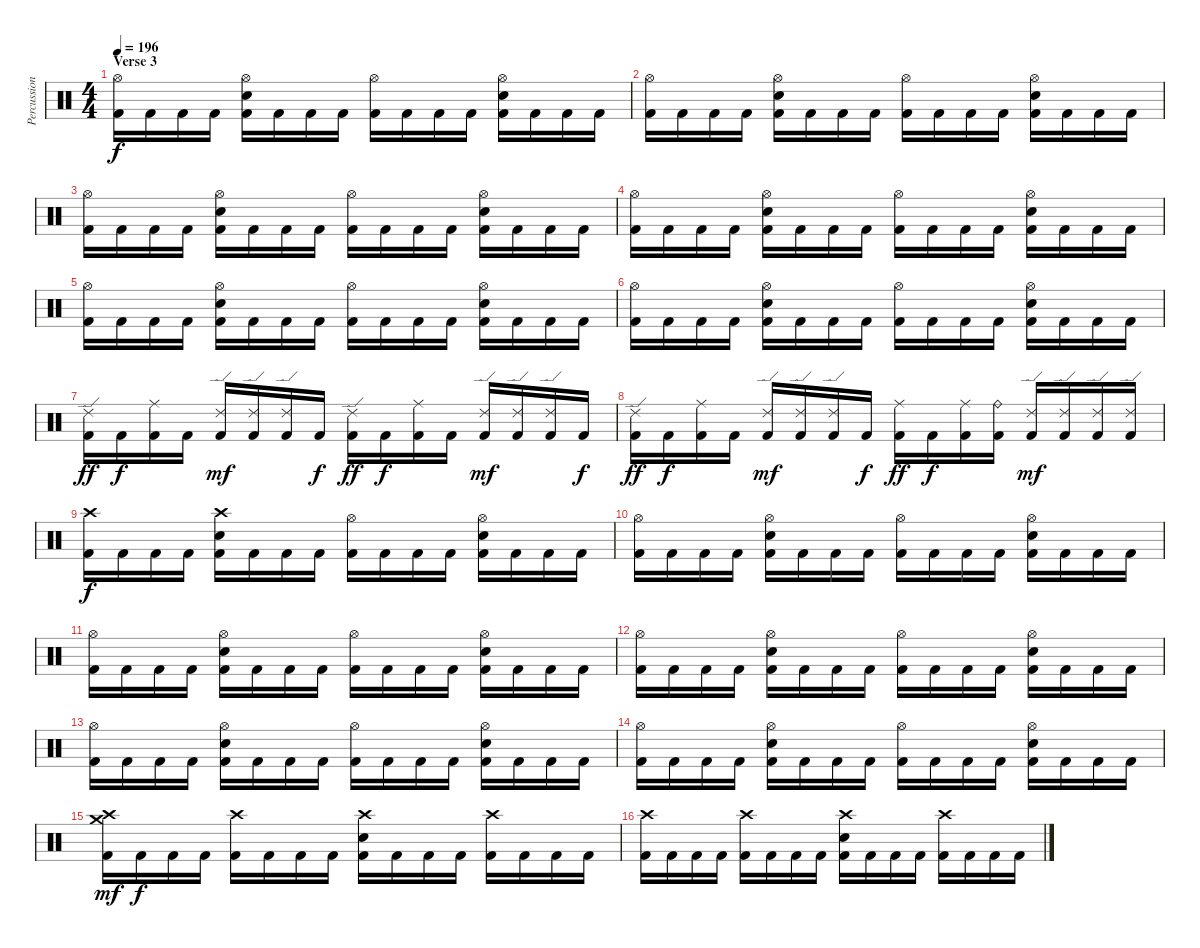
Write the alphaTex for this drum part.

\track ("Percussions" "Percussion") {instrument percussion}
\staff {score}
\articulation defaults
\ts (4 4)
\section ("" "Verse 3")
\tempo 196
\clef neutral
\ks c
("Hi-Hat (open)" "Kick (hit) 2").16{dy f} "Kick (hit) 2".16 "Kick (hit) 2".16 "Kick (hit) 2".16 ("Hi-Hat (open)" "Electric Snare (hit)" "Kick (hit) 2").16 "Kick (hit) 2".16 "Kick (hit) 2".16 "Kick (hit) 2".16 ("Hi-Hat (open)" "Kick (hit) 2").16 "Kick (hit) 2".16 "Kick (hit) 2".16 "Kick (hit) 2".16 ("Hi-Hat (open)" "Electric Snare (hit)" "Kick (hit) 2").16 "Kick (hit) 2".16 "Kick (hit) 2".16 "Kick (hit) 2".16 |
("Hi-Hat (open)" "Kick (hit) 2").16 "Kick (hit) 2".16 "Kick (hit) 2".16 "Kick (hit) 2".16 ("Hi-Hat (open)" "Electric Snare (hit)" "Kick (hit) 2").16 "Kick (hit) 2".16 "Kick (hit) 2".16 "Kick (hit) 2".16 ("Hi-Hat (open)" "Kick (hit) 2").16 "Kick (hit) 2".16 "Kick (hit) 2".16 "Kick (hit) 2".16 ("Hi-Hat (open)" "Electric Snare (hit)" "Kick (hit) 2").16 "Kick (hit) 2".16 "Kick (hit) 2".16 "Kick (hit) 2".16 |
("Hi-Hat (open)" "Kick (hit) 2").16 "Kick (hit) 2".16 "Kick (hit) 2".16 "Kick (hit) 2".16 ("Hi-Hat (open)" "Electric Snare (hit)" "Kick (hit) 2").16 "Kick (hit) 2".16 "Kick (hit) 2".16 "Kick (hit) 2".16 ("Hi-Hat (open)" "Kick (hit) 2").16 "Kick (hit) 2".16 "Kick (hit) 2".16 "Kick (hit) 2".16 ("Hi-Hat (open)" "Electric Snare (hit)" "Kick (hit) 2").16 "Kick (hit) 2".16 "Kick (hit) 2".16 "Kick (hit) 2".16 |
("Hi-Hat (open)" "Kick (hit) 2").16 "Kick (hit) 2".16 "Kick (hit) 2".16 "Kick (hit) 2".16 ("Hi-Hat (open)" "Electric Snare (hit)" "Kick (hit) 2").16 "Kick (hit) 2".16 "Kick (hit) 2".16 "Kick (hit) 2".16 ("Hi-Hat (open)" "Kick (hit) 2").16 "Kick (hit) 2".16 "Kick (hit) 2".16 "Kick (hit) 2".16 ("Hi-Hat (open)" "Electric Snare (hit)" "Kick (hit) 2").16 "Kick (hit) 2".16 "Kick (hit) 2".16 "Kick (hit) 2".16 |
("Hi-Hat (open)" "Kick (hit) 2").16 "Kick (hit) 2".16 "Kick (hit) 2".16 "Kick (hit) 2".16 ("Hi-Hat (open)" "Electric Snare (hit)" "Kick (hit) 2").16 "Kick (hit) 2".16 "Kick (hit) 2".16 "Kick (hit) 2".16 ("Hi-Hat (open)" "Kick (hit) 2").16 "Kick (hit) 2".16 "Kick (hit) 2".16 "Kick (hit) 2".16 ("Hi-Hat (open)" "Electric Snare (hit)" "Kick (hit) 2").16 "Kick (hit) 2".16 "Kick (hit) 2".16 "Kick (hit) 2".16 |
("Hi-Hat (open)" "Kick (hit) 2").16 "Kick (hit) 2".16 "Kick (hit) 2".16 "Kick (hit) 2".16 ("Hi-Hat (open)" "Electric Snare (hit)" "Kick (hit) 2").16 "Kick (hit) 2".16 "Kick (hit) 2".16 "Kick (hit) 2".16 ("Hi-Hat (open)" "Kick (hit) 2").16 "Kick (hit) 2".16 "Kick (hit) 2".16 "Kick (hit) 2".16 ("Hi-Hat (open)" "Electric Snare (hit)" "Kick (hit) 2").16 "Kick (hit) 2".16 "Kick (hit) 2".16 "Kick (hit) 2".16 |
("Ride (edge) 2" "Kick (hit) 2").16{dy ff} "Kick (hit) 2".16{dy f} ("Ride (middle)" "Kick (hit) 2").16 "Kick (hit) 2".16 ("Ride (edge) 2" "Kick (hit) 2").16{dy mf} ("Ride (edge) 2" "Kick (hit) 2").16 ("Ride (edge) 2" "Kick (hit) 2").16 "Kick (hit) 2".16{dy f} ("Ride (edge) 2" "Kick (hit) 2").16{dy ff} "Kick (hit) 2".16{dy f} ("Ride (middle)" "Kick (hit) 2").16 "Kick (hit) 2".16 ("Ride (edge) 2" "Kick (hit) 2").16{dy mf} ("Ride (edge) 2" "Kick (hit) 2").16 ("Ride (edge) 2" "Kick (hit) 2").16 "Kick (hit) 2".16{dy f} |
("Ride (edge) 2" "Kick (hit) 2").16{dy ff} "Kick (hit) 2".16{dy f} ("Ride (middle)" "Kick (hit) 2").16 "Kick (hit) 2".16 ("Ride (edge) 2" "Kick (hit) 2").16{dy mf} ("Ride (edge) 2" "Kick (hit) 2").16 ("Ride (edge) 2" "Kick (hit) 2").16 "Kick (hit) 2".16{dy f} ("Ride (middle)" "Kick (hit) 2").16{dy ff} "Kick (hit) 2".16{dy f} ("Ride (middle)" "Kick (hit) 2").16 ("Ride (bell)" "Kick (hit) 2").16 ("Ride (edge) 2" "Kick (hit) 2").16{dy mf} ("Ride (edge) 2" "Kick (hit) 2").16 ("Ride (edge) 2" "Kick (hit) 2").16 ("Ride (edge) 2" "Kick (hit) 2").16 |
("Crash high (hit)" "Kick (hit) 2").16{dy f} "Kick (hit) 2".16 "Kick (hit) 2".16 "Kick (hit) 2".16 ("Crash high (hit)" "Electric Snare (hit)" "Kick (hit) 2").16 "Kick (hit) 2".16 "Kick (hit) 2".16 "Kick (hit) 2".16 ("Hi-Hat (open)" "Kick (hit) 2").16 "Kick (hit) 2".16 "Kick (hit) 2".16 "Kick (hit) 2".16 ("Hi-Hat (open)" "Electric Snare (hit)" "Kick (hit) 2").16 "Kick (hit) 2".16 "Kick (hit) 2".16 "Kick (hit) 2".16 |
("Hi-Hat (open)" "Kick (hit) 2").16 "Kick (hit) 2".16 "Kick (hit) 2".16 "Kick (hit) 2".16 ("Hi-Hat (open)" "Electric Snare (hit)" "Kick (hit) 2").16 "Kick (hit) 2".16 "Kick (hit) 2".16 "Kick (hit) 2".16 ("Hi-Hat (open)" "Kick (hit) 2").16 "Kick (hit) 2".16 "Kick (hit) 2".16 "Kick (hit) 2".16 ("Hi-Hat (open)" "Electric Snare (hit)" "Kick (hit) 2").16 "Kick (hit) 2".16 "Kick (hit) 2".16 "Kick (hit) 2".16 |
("Hi-Hat (open)" "Kick (hit) 2").16 "Kick (hit) 2".16 "Kick (hit) 2".16 "Kick (hit) 2".16 ("Hi-Hat (open)" "Electric Snare (hit)" "Kick (hit) 2").16 "Kick (hit) 2".16 "Kick (hit) 2".16 "Kick (hit) 2".16 ("Hi-Hat (open)" "Kick (hit) 2").16 "Kick (hit) 2".16 "Kick (hit) 2".16 "Kick (hit) 2".16 ("Hi-Hat (open)" "Electric Snare (hit)" "Kick (hit) 2").16 "Kick (hit) 2".16 "Kick (hit) 2".16 "Kick (hit) 2".16 |
("Hi-Hat (open)" "Kick (hit) 2").16 "Kick (hit) 2".16 "Kick (hit) 2".16 "Kick (hit) 2".16 ("Hi-Hat (open)" "Electric Snare (hit)" "Kick (hit) 2").16 "Kick (hit) 2".16 "Kick (hit) 2".16 "Kick (hit) 2".16 ("Hi-Hat (open)" "Kick (hit) 2").16 "Kick (hit) 2".16 "Kick (hit) 2".16 "Kick (hit) 2".16 ("Hi-Hat (open)" "Electric Snare (hit)" "Kick (hit) 2").16 "Kick (hit) 2".16 "Kick (hit) 2".16 "Kick (hit) 2".16 |
("Hi-Hat (open)" "Kick (hit) 2").16 "Kick (hit) 2".16 "Kick (hit) 2".16 "Kick (hit) 2".16 ("Hi-Hat (open)" "Electric Snare (hit)" "Kick (hit) 2").16 "Kick (hit) 2".16 "Kick (hit) 2".16 "Kick (hit) 2".16 ("Hi-Hat (open)" "Kick (hit) 2").16 "Kick (hit) 2".16 "Kick (hit) 2".16 "Kick (hit) 2".16 ("Hi-Hat (open)" "Electric Snare (hit)" "Kick (hit) 2").16 "Kick (hit) 2".16 "Kick (hit) 2".16 "Kick (hit) 2".16 |
("Hi-Hat (open)" "Kick (hit) 2").16 "Kick (hit) 2".16 "Kick (hit) 2".16 "Kick (hit) 2".16 ("Hi-Hat (open)" "Electric Snare (hit)" "Kick (hit) 2").16 "Kick (hit) 2".16 "Kick (hit) 2".16 "Kick (hit) 2".16 ("Hi-Hat (open)" "Kick (hit) 2").16 "Kick (hit) 2".16 "Kick (hit) 2".16 "Kick (hit) 2".16 ("Hi-Hat (open)" "Electric Snare (hit)" "Kick (hit) 2").16 "Kick (hit) 2".16 "Kick (hit) 2".16 "Kick (hit) 2".16 |
("Crash medium (hit)" "Crash high (hit)" "Kick (hit) 2").16{dy mf} "Kick (hit) 2".16{dy f} "Kick (hit) 2".16 "Kick (hit) 2".16 ("Crash high (hit)" "Kick (hit) 2").16 "Kick (hit) 2".16 "Kick (hit) 2".16 "Kick (hit) 2".16 ("Crash high (hit)" "Electric Snare (hit)" "Kick (hit) 2").16 "Kick (hit) 2".16 "Kick (hit) 2".16 "Kick (hit) 2".16 ("Crash high (hit)" "Kick (hit) 2").16 "Kick (hit) 2".16 "Kick (hit) 2".16 "Kick (hit) 2".16 |
("Crash high (hit)" "Kick (hit) 2").16 "Kick (hit) 2".16 "Kick (hit) 2".16 "Kick (hit) 2".16 ("Crash high (hit)" "Kick (hit) 2").16 "Kick (hit) 2".16 "Kick (hit) 2".16 "Kick (hit) 2".16 ("Crash high (hit)" "Electric Snare (hit)" "Kick (hit) 2").16 "Kick (hit) 2".16 "Kick (hit) 2".16 "Kick (hit) 2".16 ("Crash high (hit)" "Kick (hit) 2").16 "Kick (hit) 2".16 "Kick (hit) 2".16 "Kick (hit) 2".16
